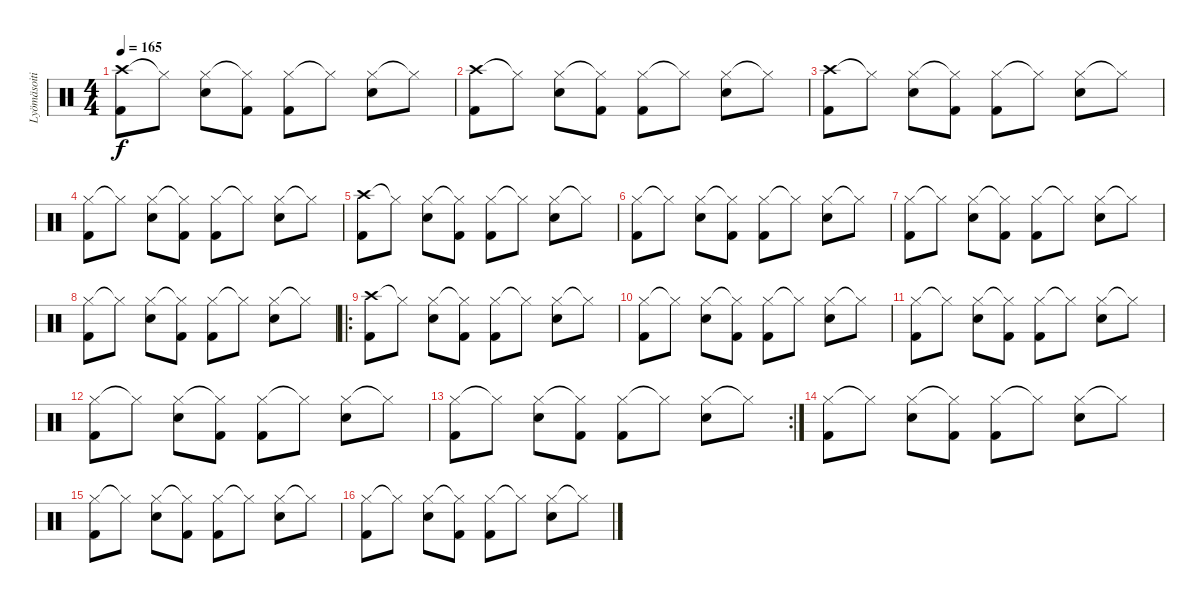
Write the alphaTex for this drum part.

\track ("Lyömäsoitin" "Lyömäsoiti") {instrument percussion}
\staff {score}
\articulation defaults
\ts (4 4)
\tempo 165
\clef neutral
\ks c
("Crash high (hit)" "Kick (hit) 2").8{dy f} "Hi-Hat (closed)"{t}.8 ("Hi-Hat (closed)" "Snare (hit) 2").8 ("Hi-Hat (closed)"{t} "Kick (hit) 2").8 ("Hi-Hat (closed)" "Kick (hit) 2").8 "Hi-Hat (closed)"{t}.8 ("Hi-Hat (closed)" "Snare (hit) 2").8 "Hi-Hat (closed)"{t}.8 |
("Crash high (hit)" "Kick (hit) 2").8 "Hi-Hat (closed)"{t}.8 ("Hi-Hat (closed)" "Snare (hit) 2").8 ("Hi-Hat (closed)"{t} "Kick (hit) 2").8 ("Hi-Hat (closed)" "Kick (hit) 2").8 "Hi-Hat (closed)"{t}.8 ("Hi-Hat (closed)" "Snare (hit) 2").8 "Hi-Hat (closed)"{t}.8 |
("Crash high (hit)" "Kick (hit) 2").8 "Hi-Hat (closed)"{t}.8 ("Hi-Hat (closed)" "Snare (hit) 2").8 ("Hi-Hat (closed)"{t} "Kick (hit) 2").8 ("Hi-Hat (closed)" "Kick (hit) 2").8 "Hi-Hat (closed)"{t}.8 ("Hi-Hat (closed)" "Snare (hit) 2").8 "Hi-Hat (closed)"{t}.8 |
("Hi-Hat (closed)" "Kick (hit) 2").8 "Hi-Hat (closed)"{t}.8 ("Hi-Hat (closed)" "Snare (hit) 2").8 ("Hi-Hat (closed)"{t} "Kick (hit) 2").8 ("Hi-Hat (closed)" "Kick (hit) 2").8 "Hi-Hat (closed)"{t}.8 ("Hi-Hat (closed)" "Snare (hit) 2").8 "Hi-Hat (closed)"{t}.8 |
("Crash high (hit)" "Kick (hit) 2").8 "Hi-Hat (closed)"{t}.8 ("Hi-Hat (closed)" "Snare (hit) 2").8 ("Hi-Hat (closed)"{t} "Kick (hit) 2").8 ("Hi-Hat (closed)" "Kick (hit) 2").8 "Hi-Hat (closed)"{t}.8 ("Hi-Hat (closed)" "Snare (hit) 2").8 "Hi-Hat (closed)"{t}.8 |
("Hi-Hat (closed)" "Kick (hit) 2").8 "Hi-Hat (closed)"{t}.8 ("Hi-Hat (closed)" "Snare (hit) 2").8 ("Hi-Hat (closed)"{t} "Kick (hit) 2").8 ("Hi-Hat (closed)" "Kick (hit) 2").8 "Hi-Hat (closed)"{t}.8 ("Hi-Hat (closed)" "Snare (hit) 2").8 "Hi-Hat (closed)"{t}.8 |
("Hi-Hat (closed)" "Kick (hit) 2").8 "Hi-Hat (closed)"{t}.8 ("Hi-Hat (closed)" "Snare (hit) 2").8 ("Hi-Hat (closed)"{t} "Kick (hit) 2").8 ("Hi-Hat (closed)" "Kick (hit) 2").8 "Hi-Hat (closed)"{t}.8 ("Hi-Hat (closed)" "Snare (hit) 2").8 "Hi-Hat (closed)"{t}.8 |
("Hi-Hat (closed)" "Kick (hit) 2").8 "Hi-Hat (closed)"{t}.8 ("Hi-Hat (closed)" "Snare (hit) 2").8 ("Hi-Hat (closed)"{t} "Kick (hit) 2").8 ("Hi-Hat (closed)" "Kick (hit) 2").8 "Hi-Hat (closed)"{t}.8 ("Hi-Hat (closed)" "Snare (hit) 2").8 "Hi-Hat (closed)"{t}.8 |
\ro
("Crash high (hit)" "Kick (hit) 2").8 "Hi-Hat (closed)"{t}.8 ("Hi-Hat (closed)" "Snare (hit) 2").8 ("Hi-Hat (closed)"{t} "Kick (hit) 2").8 ("Hi-Hat (closed)" "Kick (hit) 2").8 "Hi-Hat (closed)"{t}.8 ("Hi-Hat (closed)" "Snare (hit) 2").8 "Hi-Hat (closed)"{t}.8 |
("Hi-Hat (closed)" "Kick (hit) 2").8 "Hi-Hat (closed)"{t}.8 ("Hi-Hat (closed)" "Snare (hit) 2").8 ("Hi-Hat (closed)"{t} "Kick (hit) 2").8 ("Hi-Hat (closed)" "Kick (hit) 2").8 "Hi-Hat (closed)"{t}.8 ("Hi-Hat (closed)" "Snare (hit) 2").8 "Hi-Hat (closed)"{t}.8 |
("Hi-Hat (closed)" "Kick (hit) 2").8 "Hi-Hat (closed)"{t}.8 ("Hi-Hat (closed)" "Snare (hit) 2").8 ("Hi-Hat (closed)"{t} "Kick (hit) 2").8 ("Hi-Hat (closed)" "Kick (hit) 2").8 "Hi-Hat (closed)"{t}.8 ("Hi-Hat (closed)" "Snare (hit) 2").8 "Hi-Hat (closed)"{t}.8 |
("Hi-Hat (closed)" "Kick (hit) 2").8 "Hi-Hat (closed)"{t}.8 ("Hi-Hat (closed)" "Snare (hit) 2").8 ("Hi-Hat (closed)"{t} "Kick (hit) 2").8 ("Hi-Hat (closed)" "Kick (hit) 2").8 "Hi-Hat (closed)"{t}.8 ("Hi-Hat (closed)" "Snare (hit) 2").8 "Hi-Hat (closed)"{t}.8 |
\rc 2
("Hi-Hat (closed)" "Kick (hit) 2").8 "Hi-Hat (closed)"{t}.8 ("Hi-Hat (closed)" "Snare (hit) 2").8 ("Hi-Hat (closed)"{t} "Kick (hit) 2").8 ("Hi-Hat (closed)" "Kick (hit) 2").8 "Hi-Hat (closed)"{t}.8 ("Hi-Hat (closed)" "Snare (hit) 2").8 "Hi-Hat (closed)"{t}.8 |
("Hi-Hat (closed)" "Kick (hit) 2").8 "Hi-Hat (closed)"{t}.8 ("Hi-Hat (closed)" "Snare (hit) 2").8 ("Hi-Hat (closed)"{t} "Kick (hit) 2").8 ("Hi-Hat (closed)" "Kick (hit) 2").8 "Hi-Hat (closed)"{t}.8 ("Hi-Hat (closed)" "Snare (hit) 2").8 "Hi-Hat (closed)"{t}.8 |
("Hi-Hat (closed)" "Kick (hit) 2").8 "Hi-Hat (closed)"{t}.8 ("Hi-Hat (closed)" "Snare (hit) 2").8 ("Hi-Hat (closed)"{t} "Kick (hit) 2").8 ("Hi-Hat (closed)" "Kick (hit) 2").8 "Hi-Hat (closed)"{t}.8 ("Hi-Hat (closed)" "Snare (hit) 2").8 "Hi-Hat (closed)"{t}.8 |
("Hi-Hat (closed)" "Kick (hit) 2").8 "Hi-Hat (closed)"{t}.8 ("Hi-Hat (closed)" "Snare (hit) 2").8 ("Hi-Hat (closed)"{t} "Kick (hit) 2").8 ("Hi-Hat (closed)" "Kick (hit) 2").8 "Hi-Hat (closed)"{t}.8 ("Hi-Hat (closed)" "Snare (hit) 2").8 "Hi-Hat (closed)"{t}.8
